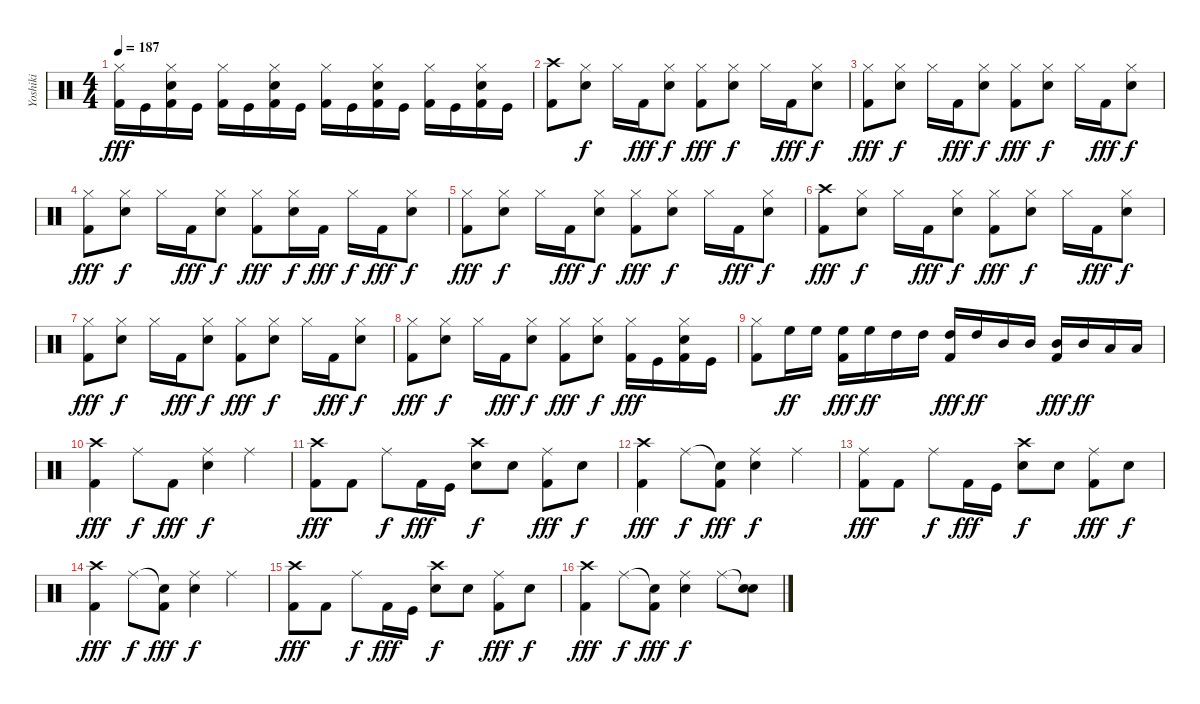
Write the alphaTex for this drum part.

\track ("Yoshiki" "Yoshiki") {instrument percussion}
\staff {score}
\articulation defaults
\ts (4 4)
\tempo 187
\clef neutral
\ks c
("Hi-Hat (closed)" "Kick (hit) 2").16{dy fff} "Kick (hit)".16 ("Hi-Hat (closed)" "Electric Snare (hit)" "Kick (hit) 2").16 "Kick (hit)".16 ("Hi-Hat (closed)" "Kick (hit) 2").16 "Kick (hit)".16 ("Hi-Hat (closed)" "Electric Snare (hit)" "Kick (hit) 2").16 "Kick (hit)".16 ("Hi-Hat (closed)" "Kick (hit) 2").16 "Kick (hit)".16 ("Hi-Hat (closed)" "Electric Snare (hit)" "Kick (hit) 2").16 "Kick (hit)".16 ("Hi-Hat (closed)" "Kick (hit) 2").16 "Kick (hit)".16 ("Hi-Hat (closed)" "Electric Snare (hit)" "Kick (hit) 2").16 "Kick (hit)".16 |
("Crash high (hit)" "Kick (hit) 2").8 ("Hi-Hat (closed)" "Electric Snare (hit)").8{dy f} "Hi-Hat (closed)".16 "Kick (hit) 2".16{dy fff} ("Hi-Hat (closed)" "Electric Snare (hit)").8{dy f} ("Hi-Hat (closed)" "Kick (hit) 2").8{dy fff} ("Hi-Hat (closed)" "Electric Snare (hit)").8{dy f} "Hi-Hat (closed)".16 "Kick (hit) 2".16{dy fff} ("Hi-Hat (closed)" "Electric Snare (hit)").8{dy f} |
("Hi-Hat (closed)" "Kick (hit) 2").8{dy fff} ("Hi-Hat (closed)" "Electric Snare (hit)").8{dy f} "Hi-Hat (closed)".16 "Kick (hit) 2".16{dy fff} ("Hi-Hat (closed)" "Electric Snare (hit)").8{dy f} ("Hi-Hat (closed)" "Kick (hit) 2").8{dy fff} ("Hi-Hat (closed)" "Electric Snare (hit)").8{dy f} "Hi-Hat (closed)".16 "Kick (hit) 2".16{dy fff} ("Hi-Hat (closed)" "Electric Snare (hit)").8{dy f} |
("Hi-Hat (closed)" "Kick (hit) 2").8{dy fff} ("Hi-Hat (closed)" "Electric Snare (hit)").8{dy f} "Hi-Hat (closed)".16 "Kick (hit) 2".16{dy fff} ("Hi-Hat (closed)" "Electric Snare (hit)").8{dy f} ("Hi-Hat (closed)" "Kick (hit) 2").8{dy fff} ("Hi-Hat (closed)" "Electric Snare (hit)").16{dy f} "Kick (hit) 2".16{dy fff} "Hi-Hat (closed)".16{dy f} "Kick (hit) 2".16{dy fff} ("Hi-Hat (closed)" "Electric Snare (hit)").8{dy f} |
("Hi-Hat (closed)" "Kick (hit) 2").8{dy fff} ("Hi-Hat (closed)" "Electric Snare (hit)").8{dy f} "Hi-Hat (closed)".16 "Kick (hit) 2".16{dy fff} ("Hi-Hat (closed)" "Electric Snare (hit)").8{dy f} ("Hi-Hat (closed)" "Kick (hit) 2").8{dy fff} ("Hi-Hat (closed)" "Electric Snare (hit)").8{dy f} "Hi-Hat (closed)".16 "Kick (hit) 2".16{dy fff} ("Hi-Hat (closed)" "Electric Snare (hit)").8{dy f} |
("Crash high (hit)" "Kick (hit) 2").8{dy fff} ("Hi-Hat (closed)" "Electric Snare (hit)").8{dy f} "Hi-Hat (closed)".16 "Kick (hit) 2".16{dy fff} ("Hi-Hat (closed)" "Electric Snare (hit)").8{dy f} ("Hi-Hat (closed)" "Kick (hit) 2").8{dy fff} ("Hi-Hat (closed)" "Electric Snare (hit)").8{dy f} "Hi-Hat (closed)".16 "Kick (hit) 2".16{dy fff} ("Hi-Hat (closed)" "Electric Snare (hit)").8{dy f} |
("Hi-Hat (closed)" "Kick (hit) 2").8{dy fff} ("Hi-Hat (closed)" "Electric Snare (hit)").8{dy f} "Hi-Hat (closed)".16 "Kick (hit) 2".16{dy fff} ("Hi-Hat (closed)" "Electric Snare (hit)").8{dy f} ("Hi-Hat (closed)" "Kick (hit) 2").8{dy fff} ("Hi-Hat (closed)" "Electric Snare (hit)").8{dy f} "Hi-Hat (closed)".16 "Kick (hit) 2".16{dy fff} ("Hi-Hat (closed)" "Electric Snare (hit)").8{dy f} |
("Hi-Hat (closed)" "Kick (hit) 2").8{dy fff} ("Hi-Hat (closed)" "Electric Snare (hit)").8{dy f} "Hi-Hat (closed)".16 "Kick (hit) 2".16{dy fff} ("Hi-Hat (closed)" "Electric Snare (hit)").8{dy f} ("Hi-Hat (closed)" "Kick (hit) 2").8{dy fff} ("Hi-Hat (closed)" "Electric Snare (hit)").8{dy f} ("Hi-Hat (closed)" "Kick (hit) 2").16{dy fff} "Kick (hit)".16 ("Hi-Hat (closed)" "Electric Snare (hit)" "Kick (hit) 2").16 "Kick (hit)".16 |
("Hi-Hat (closed)" "Kick (hit) 2").8 "High Floor Tom (hit)".16{dy ff} "High Floor Tom (hit)".16 ("High Floor Tom (hit)" "Kick (hit) 2").16{dy fff} "High Floor Tom (hit)".16{dy ff} "High Tom (hit)".16 "High Tom (hit)".16 ("High Tom (hit)" "Kick (hit) 2").16{dy fff} "High Tom (hit)".16{dy ff} "Mid Tom (hit)".16 "Mid Tom (hit)".16 ("Mid Tom (hit)" "Kick (hit) 2").16{dy fff} "Mid Tom (hit)".16{dy ff} "Low Tom (hit)".16 "Low Tom (hit)".16 |
("Crash high (hit)" "Kick (hit) 2").4{dy fff} "Ride (middle)".8{dy f} "Kick (hit) 2".8{dy fff} ("Ride (middle)" "Electric Snare (hit)").4{dy f} "Ride (middle)".4 |
("Crash high (hit)" "Kick (hit) 2").8{dy fff} "Kick (hit) 2".8 "Ride (middle)".8{dy f} "Kick (hit) 2".16{dy fff} "Kick (hit)".16 ("Crash high (hit)" "Electric Snare (hit)").8{dy f} "Electric Snare (hit)".8 ("Ride (middle)" "Kick (hit) 2").8{dy fff} "Electric Snare (hit)".8{dy f} |
("Crash high (hit)" "Kick (hit) 2").4{dy fff} "Ride (middle)".8{dy f} ("Snare (hit)"{t} "Kick (hit) 2").8{dy fff} ("Ride (middle)" "Electric Snare (hit)").4{dy f} "Ride (middle)".4 |
("Ride (middle)" "Kick (hit) 2").8{dy fff} "Kick (hit) 2".8 "Ride (middle)".8{dy f} "Kick (hit) 2".16{dy fff} "Kick (hit)".16 ("Crash high (hit)" "Electric Snare (hit)").8{dy f} "Electric Snare (hit)".8 ("Ride (middle)" "Kick (hit) 2").8{dy fff} "Electric Snare (hit)".8{dy f} |
("Crash high (hit)" "Kick (hit) 2").4{dy fff} "Ride (middle)".8{dy f} ("Snare (hit)"{t} "Kick (hit) 2").8{dy fff} ("Ride (middle)" "Electric Snare (hit)").4{dy f} "Ride (middle)".4 |
("Crash high (hit)" "Kick (hit) 2").8{dy fff} "Kick (hit) 2".8 "Ride (middle)".8{dy f} "Kick (hit) 2".16{dy fff} "Kick (hit)".16 ("Crash high (hit)" "Electric Snare (hit)").8{dy f} "Electric Snare (hit)".8 ("Ride (middle)" "Kick (hit) 2").8{dy fff} "Electric Snare (hit)".8{dy f} |
("Crash high (hit)" "Kick (hit) 2").4{dy fff} "Ride (middle)".8{dy f} ("Snare (hit)"{t} "Kick (hit) 2").8{dy fff} ("Ride (middle)" "Electric Snare (hit)").4{dy f} "Ride (middle)".8 ("Snare (hit)"{t} "Electric Snare (hit)").8
